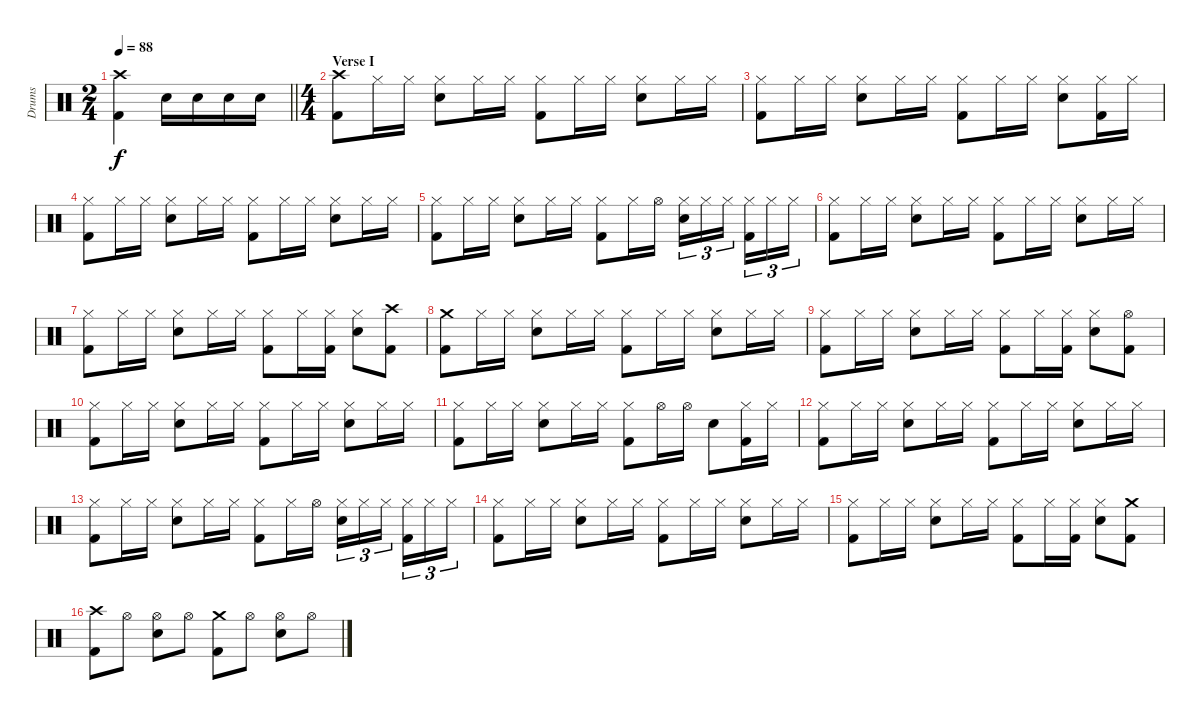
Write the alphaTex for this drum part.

\track ("Drums" "Drums") {instrument percussion}
\staff {score}
\articulation defaults
\ts (2 4)
\tempo 88
\clef neutral
\barLineRight lightlight
\ks c
("Crash high (hit)" "Kick (hit) 2").4{dy f} "Snare (hit) 2".16 "Snare (hit) 2".16 "Snare (hit) 2".16 "Snare (hit) 2".16 |
\ts (4 4)
\section ("" "Verse I")
("Crash high (hit)" "Kick (hit) 2").8 "Hi-Hat (closed)".16 "Hi-Hat (closed)".16 ("Hi-Hat (closed)" "Snare (hit) 2").8 "Hi-Hat (closed)".16 "Hi-Hat (closed)".16 ("Hi-Hat (closed)" "Kick (hit) 2").8 "Hi-Hat (closed)".16 "Hi-Hat (closed)".16 ("Hi-Hat (closed)" "Snare (hit) 2").8 "Hi-Hat (closed)".16 "Hi-Hat (closed)".16 |
("Hi-Hat (closed)" "Kick (hit) 2").8 "Hi-Hat (closed)".16 "Hi-Hat (closed)".16 ("Hi-Hat (closed)" "Snare (hit) 2").8 "Hi-Hat (closed)".16 "Hi-Hat (closed)".16 ("Hi-Hat (closed)" "Kick (hit) 2").8 "Hi-Hat (closed)".16 "Hi-Hat (closed)".16 ("Hi-Hat (closed)" "Snare (hit) 2").8 ("Hi-Hat (closed)" "Kick (hit) 2").16 "Hi-Hat (closed)".16 |
("Hi-Hat (closed)" "Kick (hit) 2").8 "Hi-Hat (closed)".16 "Hi-Hat (closed)".16 ("Hi-Hat (closed)" "Snare (hit) 2").8 "Hi-Hat (closed)".16 "Hi-Hat (closed)".16 ("Hi-Hat (closed)" "Kick (hit) 2").8 "Hi-Hat (closed)".16 "Hi-Hat (closed)".16 ("Hi-Hat (closed)" "Snare (hit) 2").8 "Hi-Hat (closed)".16 "Hi-Hat (closed)".16 |
("Hi-Hat (closed)" "Kick (hit) 2").8 "Hi-Hat (closed)".16 "Hi-Hat (closed)".16 ("Hi-Hat (closed)" "Snare (hit) 2").8 "Hi-Hat (closed)".16 "Hi-Hat (closed)".16 ("Hi-Hat (closed)" "Kick (hit) 2").8 "Hi-Hat (closed)".16 "Hi-Hat (open)".16 ("Hi-Hat (closed)" "Snare (hit) 2").16{tu (3 2)} "Hi-Hat (closed)".16{tu (3 2)} "Hi-Hat (closed)".16{tu (3 2) beam splitsecondary} ("Hi-Hat (closed)" "Kick (hit) 2").16{tu (3 2)} "Hi-Hat (closed)".16{tu (3 2)} "Hi-Hat (closed)".16{tu (3 2)} |
("Hi-Hat (closed)" "Kick (hit) 2").8 "Hi-Hat (closed)".16 "Hi-Hat (closed)".16 ("Hi-Hat (closed)" "Snare (hit) 2").8 "Hi-Hat (closed)".16 "Hi-Hat (closed)".16 ("Hi-Hat (closed)" "Kick (hit) 2").8 "Hi-Hat (closed)".16 "Hi-Hat (closed)".16 ("Hi-Hat (closed)" "Snare (hit) 2").8 "Hi-Hat (closed)".16 "Hi-Hat (closed)".16 |
("Hi-Hat (closed)" "Kick (hit) 2").8 "Hi-Hat (closed)".16 "Hi-Hat (closed)".16 ("Hi-Hat (closed)" "Snare (hit) 2").8 "Hi-Hat (closed)".16 "Hi-Hat (closed)".16 ("Hi-Hat (closed)" "Kick (hit) 2").8 "Hi-Hat (closed)".16 ("Hi-Hat (closed)" "Kick (hit) 2").16 ("Hi-Hat (closed)" "Snare (hit) 2").8 ("Crash high (hit)" "Kick (hit) 2").8 |
("Crash medium (hit)" "Kick (hit) 2").8 "Hi-Hat (closed)".16 "Hi-Hat (closed)".16 ("Hi-Hat (closed)" "Snare (hit) 2").8 "Hi-Hat (closed)".16 "Hi-Hat (closed)".16 ("Hi-Hat (closed)" "Kick (hit) 2").8 "Hi-Hat (closed)".16 "Hi-Hat (closed)".16 ("Hi-Hat (closed)" "Snare (hit) 2").8 "Hi-Hat (closed)".16 "Hi-Hat (closed)".16 |
("Hi-Hat (closed)" "Kick (hit) 2").8 "Hi-Hat (closed)".16 "Hi-Hat (closed)".16 ("Hi-Hat (closed)" "Snare (hit) 2").8 "Hi-Hat (closed)".16 "Hi-Hat (closed)".16 ("Hi-Hat (closed)" "Kick (hit) 2").8 "Hi-Hat (closed)".16 ("Hi-Hat (closed)" "Kick (hit) 2").16 ("Hi-Hat (closed)" "Snare (hit) 2").8 ("Hi-Hat (open)" "Kick (hit) 2").8 |
("Hi-Hat (closed)" "Kick (hit) 2").8 "Hi-Hat (closed)".16 "Hi-Hat (closed)".16 ("Hi-Hat (closed)" "Snare (hit) 2").8 "Hi-Hat (closed)".16 "Hi-Hat (closed)".16 ("Hi-Hat (closed)" "Kick (hit) 2").8 "Hi-Hat (closed)".16 "Hi-Hat (closed)".16 ("Hi-Hat (closed)" "Snare (hit) 2").8 "Hi-Hat (closed)".16 "Hi-Hat (closed)".16 |
("Hi-Hat (closed)" "Kick (hit) 2").8 "Hi-Hat (closed)".16 "Hi-Hat (closed)".16 ("Hi-Hat (closed)" "Snare (hit) 2").8 "Hi-Hat (closed)".16 "Hi-Hat (closed)".16 ("Hi-Hat (closed)" "Kick (hit) 2").8 "Hi-Hat (open)".16 "Hi-Hat (open)".16 "Snare (hit) 2".8 ("Hi-Hat (closed)" "Kick (hit) 2").16 "Hi-Hat (closed)".16 |
("Hi-Hat (closed)" "Kick (hit) 2").8 "Hi-Hat (closed)".16 "Hi-Hat (closed)".16 ("Hi-Hat (closed)" "Snare (hit) 2").8 "Hi-Hat (closed)".16 "Hi-Hat (closed)".16 ("Hi-Hat (closed)" "Kick (hit) 2").8 "Hi-Hat (closed)".16 "Hi-Hat (closed)".16 ("Hi-Hat (closed)" "Snare (hit) 2").8 "Hi-Hat (closed)".16 "Hi-Hat (closed)".16 |
("Hi-Hat (closed)" "Kick (hit) 2").8 "Hi-Hat (closed)".16 "Hi-Hat (closed)".16 ("Hi-Hat (closed)" "Snare (hit) 2").8 "Hi-Hat (closed)".16 "Hi-Hat (closed)".16 ("Hi-Hat (closed)" "Kick (hit) 2").8 "Hi-Hat (closed)".16 "Hi-Hat (open)".16 ("Hi-Hat (closed)" "Snare (hit) 2").16{tu (3 2)} "Hi-Hat (closed)".16{tu (3 2)} "Hi-Hat (closed)".16{tu (3 2) beam splitsecondary} ("Hi-Hat (closed)" "Kick (hit) 2").16{tu (3 2)} "Hi-Hat (closed)".16{tu (3 2)} "Hi-Hat (closed)".16{tu (3 2)} |
("Hi-Hat (closed)" "Kick (hit) 2").8 "Hi-Hat (closed)".16 "Hi-Hat (closed)".16 ("Hi-Hat (closed)" "Snare (hit) 2").8 "Hi-Hat (closed)".16 "Hi-Hat (closed)".16 ("Hi-Hat (closed)" "Kick (hit) 2").8 "Hi-Hat (closed)".16 "Hi-Hat (closed)".16 ("Hi-Hat (closed)" "Snare (hit) 2").8 "Hi-Hat (closed)".16 "Hi-Hat (closed)".16 |
("Hi-Hat (closed)" "Kick (hit) 2").8 "Hi-Hat (closed)".16 "Hi-Hat (closed)".16 ("Hi-Hat (closed)" "Snare (hit) 2").8 "Hi-Hat (closed)".16 "Hi-Hat (closed)".16 ("Hi-Hat (closed)" "Kick (hit) 2").8 "Hi-Hat (closed)".16 ("Hi-Hat (closed)" "Kick (hit) 2").16 ("Hi-Hat (closed)" "Snare (hit) 2").8 ("Crash medium (hit)" "Kick (hit) 2").8 |
("Crash high (hit)" "Kick (hit) 2").8 "Hi-Hat (open)".8 ("Hi-Hat (open)" "Snare (hit) 2").8 "Hi-Hat (open)".8 ("Crash medium (hit)" "Kick (hit) 2").8 "Hi-Hat (open)".8 ("Hi-Hat (open)" "Snare (hit) 2").8 "Hi-Hat (open)".8
